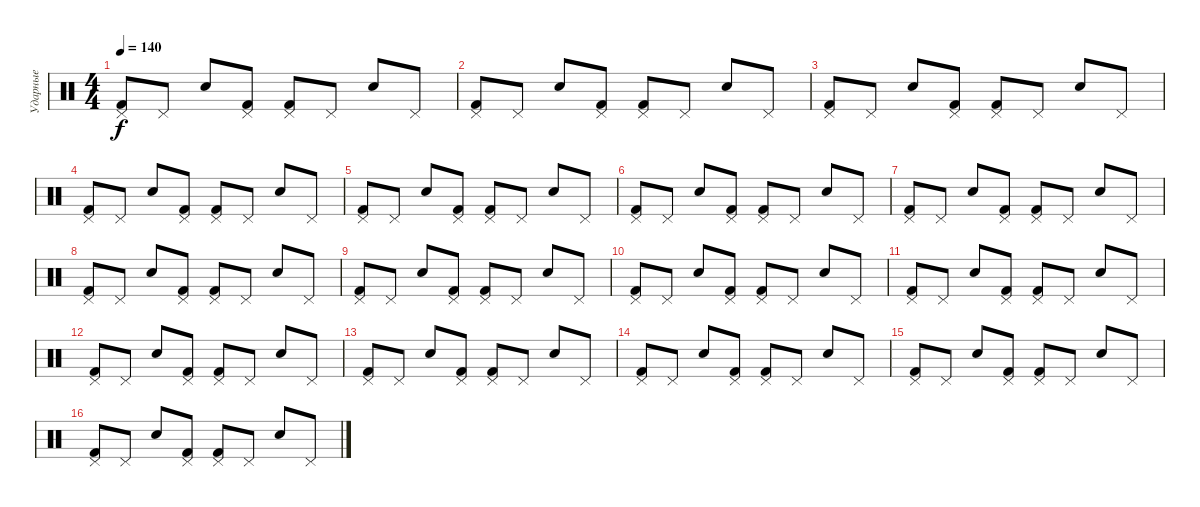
\track ("Ударные" "Ударные") {instrument percussion}
\staff {score}
\articulation defaults
\ts (4 4)
\tempo 140
\clef neutral
\ks c
("Kick (hit) 2" "Pedal Hi-Hat (hit)").8{dy f} "Pedal Hi-Hat (hit)".8 "Electric Snare (hit)".8 ("Kick (hit) 2" "Pedal Hi-Hat (hit)").8 ("Kick (hit) 2" "Pedal Hi-Hat (hit)").8 "Pedal Hi-Hat (hit)".8 "Electric Snare (hit)".8 "Pedal Hi-Hat (hit)".8 |
("Kick (hit) 2" "Pedal Hi-Hat (hit)").8 "Pedal Hi-Hat (hit)".8 "Electric Snare (hit)".8 ("Kick (hit) 2" "Pedal Hi-Hat (hit)").8 ("Kick (hit) 2" "Pedal Hi-Hat (hit)").8 "Pedal Hi-Hat (hit)".8 "Electric Snare (hit)".8 "Pedal Hi-Hat (hit)".8 |
("Kick (hit) 2" "Pedal Hi-Hat (hit)").8 "Pedal Hi-Hat (hit)".8 "Electric Snare (hit)".8 ("Kick (hit) 2" "Pedal Hi-Hat (hit)").8 ("Kick (hit) 2" "Pedal Hi-Hat (hit)").8 "Pedal Hi-Hat (hit)".8 "Electric Snare (hit)".8 "Pedal Hi-Hat (hit)".8 |
("Kick (hit) 2" "Pedal Hi-Hat (hit)").8 "Pedal Hi-Hat (hit)".8 "Electric Snare (hit)".8 ("Kick (hit) 2" "Pedal Hi-Hat (hit)").8 ("Kick (hit) 2" "Pedal Hi-Hat (hit)").8 "Pedal Hi-Hat (hit)".8 "Electric Snare (hit)".8 "Pedal Hi-Hat (hit)".8 |
("Kick (hit) 2" "Pedal Hi-Hat (hit)").8 "Pedal Hi-Hat (hit)".8 "Electric Snare (hit)".8 ("Kick (hit) 2" "Pedal Hi-Hat (hit)").8 ("Kick (hit) 2" "Pedal Hi-Hat (hit)").8 "Pedal Hi-Hat (hit)".8 "Electric Snare (hit)".8 "Pedal Hi-Hat (hit)".8 |
("Kick (hit) 2" "Pedal Hi-Hat (hit)").8 "Pedal Hi-Hat (hit)".8 "Electric Snare (hit)".8 ("Kick (hit) 2" "Pedal Hi-Hat (hit)").8 ("Kick (hit) 2" "Pedal Hi-Hat (hit)").8 "Pedal Hi-Hat (hit)".8 "Electric Snare (hit)".8 "Pedal Hi-Hat (hit)".8 |
("Kick (hit) 2" "Pedal Hi-Hat (hit)").8 "Pedal Hi-Hat (hit)".8 "Electric Snare (hit)".8 ("Kick (hit) 2" "Pedal Hi-Hat (hit)").8 ("Kick (hit) 2" "Pedal Hi-Hat (hit)").8 "Pedal Hi-Hat (hit)".8 "Electric Snare (hit)".8 "Pedal Hi-Hat (hit)".8 |
("Kick (hit) 2" "Pedal Hi-Hat (hit)").8 "Pedal Hi-Hat (hit)".8 "Electric Snare (hit)".8 ("Kick (hit) 2" "Pedal Hi-Hat (hit)").8 ("Kick (hit) 2" "Pedal Hi-Hat (hit)").8 "Pedal Hi-Hat (hit)".8 "Electric Snare (hit)".8 "Pedal Hi-Hat (hit)".8 |
("Kick (hit) 2" "Pedal Hi-Hat (hit)").8 "Pedal Hi-Hat (hit)".8 "Electric Snare (hit)".8 ("Kick (hit) 2" "Pedal Hi-Hat (hit)").8 ("Kick (hit) 2" "Pedal Hi-Hat (hit)").8 "Pedal Hi-Hat (hit)".8 "Electric Snare (hit)".8 "Pedal Hi-Hat (hit)".8 |
("Kick (hit) 2" "Pedal Hi-Hat (hit)").8 "Pedal Hi-Hat (hit)".8 "Electric Snare (hit)".8 ("Kick (hit) 2" "Pedal Hi-Hat (hit)").8 ("Kick (hit) 2" "Pedal Hi-Hat (hit)").8 "Pedal Hi-Hat (hit)".8 "Electric Snare (hit)".8 "Pedal Hi-Hat (hit)".8 |
("Kick (hit) 2" "Pedal Hi-Hat (hit)").8 "Pedal Hi-Hat (hit)".8 "Electric Snare (hit)".8 ("Kick (hit) 2" "Pedal Hi-Hat (hit)").8 ("Kick (hit) 2" "Pedal Hi-Hat (hit)").8 "Pedal Hi-Hat (hit)".8 "Electric Snare (hit)".8 "Pedal Hi-Hat (hit)".8 |
("Kick (hit) 2" "Pedal Hi-Hat (hit)").8 "Pedal Hi-Hat (hit)".8 "Electric Snare (hit)".8 ("Kick (hit) 2" "Pedal Hi-Hat (hit)").8 ("Kick (hit) 2" "Pedal Hi-Hat (hit)").8 "Pedal Hi-Hat (hit)".8 "Electric Snare (hit)".8 "Pedal Hi-Hat (hit)".8 |
("Kick (hit) 2" "Pedal Hi-Hat (hit)").8 "Pedal Hi-Hat (hit)".8 "Electric Snare (hit)".8 ("Kick (hit) 2" "Pedal Hi-Hat (hit)").8 ("Kick (hit) 2" "Pedal Hi-Hat (hit)").8 "Pedal Hi-Hat (hit)".8 "Electric Snare (hit)".8 "Pedal Hi-Hat (hit)".8 |
("Kick (hit) 2" "Pedal Hi-Hat (hit)").8 "Pedal Hi-Hat (hit)".8 "Electric Snare (hit)".8 ("Kick (hit) 2" "Pedal Hi-Hat (hit)").8 ("Kick (hit) 2" "Pedal Hi-Hat (hit)").8 "Pedal Hi-Hat (hit)".8 "Electric Snare (hit)".8 "Pedal Hi-Hat (hit)".8 |
("Kick (hit) 2" "Pedal Hi-Hat (hit)").8 "Pedal Hi-Hat (hit)".8 "Electric Snare (hit)".8 ("Kick (hit) 2" "Pedal Hi-Hat (hit)").8 ("Kick (hit) 2" "Pedal Hi-Hat (hit)").8 "Pedal Hi-Hat (hit)".8 "Electric Snare (hit)".8 "Pedal Hi-Hat (hit)".8 |
("Kick (hit) 2" "Pedal Hi-Hat (hit)").8 "Pedal Hi-Hat (hit)".8 "Electric Snare (hit)".8 ("Kick (hit) 2" "Pedal Hi-Hat (hit)").8 ("Kick (hit) 2" "Pedal Hi-Hat (hit)").8 "Pedal Hi-Hat (hit)".8 "Electric Snare (hit)".8 "Pedal Hi-Hat (hit)".8
